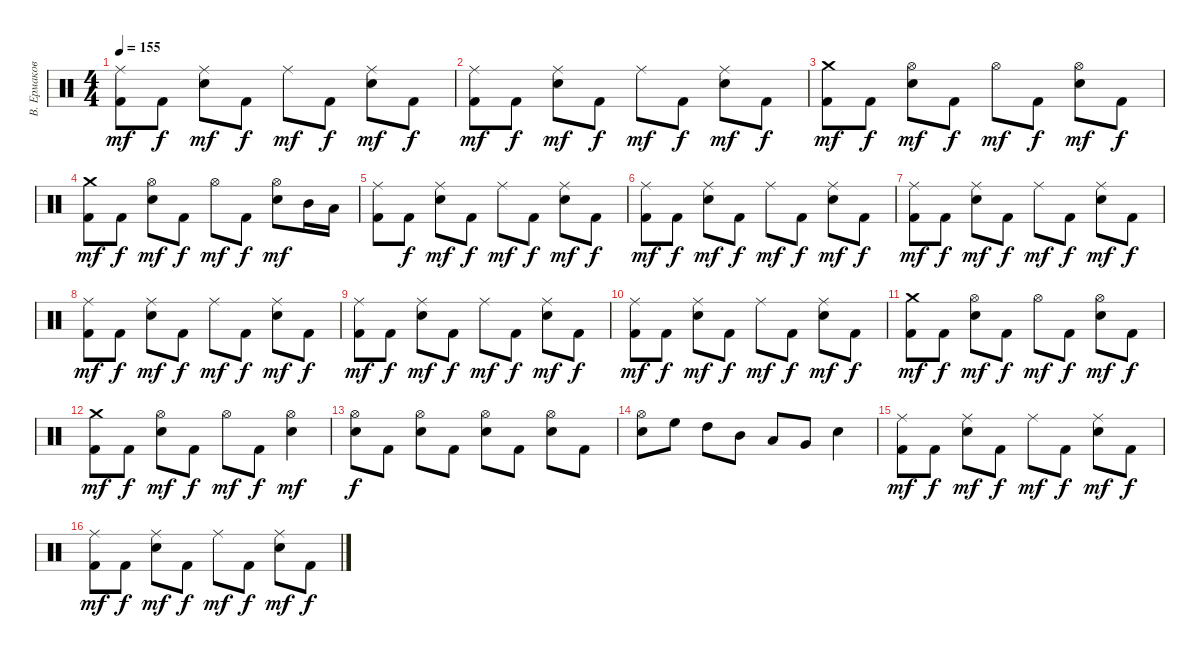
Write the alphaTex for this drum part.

\track ("В. Ермаков" "В. Ермаков") {instrument percussion}
\staff {score}
\articulation defaults
\ts (4 4)
\tempo 155
\clef neutral
\ks c
("Ride (middle)" "Kick (hit) 2").8{dy mf} "Kick (hit) 2".8{dy f} ("Ride (middle)" "Electric Snare (hit)").8{dy mf} "Kick (hit) 2".8{dy f} "Ride (middle)".8{dy mf} "Kick (hit) 2".8{dy f} ("Ride (middle)" "Electric Snare (hit)").8{dy mf} "Kick (hit) 2".8{dy f} |
("Ride (middle)" "Kick (hit) 2").8{dy mf} "Kick (hit) 2".8{dy f} ("Ride (middle)" "Electric Snare (hit)").8{dy mf} "Kick (hit) 2".8{dy f} "Ride (middle)".8{dy mf} "Kick (hit) 2".8{dy f} ("Ride (middle)" "Electric Snare (hit)").8{dy mf} "Kick (hit) 2".8{dy f} |
("Crash medium (hit)" "Kick (hit) 2").8{dy mf} "Kick (hit) 2".8{dy f} ("Hi-Hat (open)" "Electric Snare (hit)").8{dy mf} "Kick (hit) 2".8{dy f} "Hi-Hat (open)".8{dy mf} "Kick (hit) 2".8{dy f} ("Hi-Hat (open)" "Electric Snare (hit)").8{dy mf} "Kick (hit) 2".8{dy f} |
("Crash medium (hit)" "Kick (hit) 2").8{dy mf} "Kick (hit) 2".8{dy f} ("Hi-Hat (open)" "Electric Snare (hit)").8{dy mf} "Kick (hit) 2".8{dy f} "Hi-Hat (open)".8{dy mf} "Kick (hit) 2".8{dy f} ("Hi-Hat (open)" "Electric Snare (hit)").8{dy mf} "Mid Tom (hit)".16 "Low Tom (hit)".16 |
("Ride (middle)" "Kick (hit) 2").8 "Kick (hit) 2".8{dy f} ("Ride (middle)" "Electric Snare (hit)").8{dy mf} "Kick (hit) 2".8{dy f} "Ride (middle)".8{dy mf} "Kick (hit) 2".8{dy f} ("Ride (middle)" "Electric Snare (hit)").8{dy mf} "Kick (hit) 2".8{dy f} |
("Ride (middle)" "Kick (hit) 2").8{dy mf} "Kick (hit) 2".8{dy f} ("Ride (middle)" "Electric Snare (hit)").8{dy mf} "Kick (hit) 2".8{dy f} "Ride (middle)".8{dy mf} "Kick (hit) 2".8{dy f} ("Ride (middle)" "Electric Snare (hit)").8{dy mf} "Kick (hit) 2".8{dy f} |
("Ride (middle)" "Kick (hit) 2").8{dy mf} "Kick (hit) 2".8{dy f} ("Ride (middle)" "Electric Snare (hit)").8{dy mf} "Kick (hit) 2".8{dy f} "Ride (middle)".8{dy mf} "Kick (hit) 2".8{dy f} ("Ride (middle)" "Electric Snare (hit)").8{dy mf} "Kick (hit) 2".8{dy f} |
("Ride (middle)" "Kick (hit) 2").8{dy mf} "Kick (hit) 2".8{dy f} ("Ride (middle)" "Electric Snare (hit)").8{dy mf} "Kick (hit) 2".8{dy f} "Ride (middle)".8{dy mf} "Kick (hit) 2".8{dy f} ("Ride (middle)" "Electric Snare (hit)").8{dy mf} "Kick (hit) 2".8{dy f} |
("Ride (middle)" "Kick (hit) 2").8{dy mf} "Kick (hit) 2".8{dy f} ("Ride (middle)" "Electric Snare (hit)").8{dy mf} "Kick (hit) 2".8{dy f} "Ride (middle)".8{dy mf} "Kick (hit) 2".8{dy f} ("Ride (middle)" "Electric Snare (hit)").8{dy mf} "Kick (hit) 2".8{dy f} |
("Ride (middle)" "Kick (hit) 2").8{dy mf} "Kick (hit) 2".8{dy f} ("Ride (middle)" "Electric Snare (hit)").8{dy mf} "Kick (hit) 2".8{dy f} "Ride (middle)".8{dy mf} "Kick (hit) 2".8{dy f} ("Ride (middle)" "Electric Snare (hit)").8{dy mf} "Kick (hit) 2".8{dy f} |
("Crash medium (hit)" "Kick (hit) 2").8{dy mf} "Kick (hit) 2".8{dy f} ("Hi-Hat (open)" "Electric Snare (hit)").8{dy mf} "Kick (hit) 2".8{dy f} "Hi-Hat (open)".8{dy mf} "Kick (hit) 2".8{dy f} ("Hi-Hat (open)" "Electric Snare (hit)").8{dy mf} "Kick (hit) 2".8{dy f} |
("Crash medium (hit)" "Kick (hit) 2").8{dy mf} "Kick (hit) 2".8{dy f} ("Hi-Hat (open)" "Electric Snare (hit)").8{dy mf} "Kick (hit) 2".8{dy f} "Hi-Hat (open)".8{dy mf} "Kick (hit) 2".8{dy f} ("Hi-Hat (open)" "Electric Snare (hit)").4{dy mf} |
("Hi-Hat (open)" "Electric Snare (hit)").8{dy f} "Kick (hit) 2".8 ("Hi-Hat (open)" "Electric Snare (hit)").8 "Kick (hit) 2".8 ("Hi-Hat (open)" "Electric Snare (hit)").8 "Kick (hit) 2".8 ("Hi-Hat (open)" "Electric Snare (hit)").8 "Kick (hit) 2".8 |
("Hi-Hat (open)" "Electric Snare (hit)").8 "High Floor Tom (hit)".8 "High Tom (hit)".8 "Mid Tom (hit)".8 "Low Tom (hit)".8 "Very Low Tom (hit)".8 "Electric Snare (hit)".4 |
("Ride (middle)" "Kick (hit) 2").8{dy mf} "Kick (hit) 2".8{dy f} ("Ride (middle)" "Electric Snare (hit)").8{dy mf} "Kick (hit) 2".8{dy f} "Ride (middle)".8{dy mf} "Kick (hit) 2".8{dy f} ("Ride (middle)" "Electric Snare (hit)").8{dy mf} "Kick (hit) 2".8{dy f} |
("Ride (middle)" "Kick (hit) 2").8{dy mf} "Kick (hit) 2".8{dy f} ("Ride (middle)" "Electric Snare (hit)").8{dy mf} "Kick (hit) 2".8{dy f} "Ride (middle)".8{dy mf} "Kick (hit) 2".8{dy f} ("Ride (middle)" "Electric Snare (hit)").8{dy mf} "Kick (hit) 2".8{dy f}
